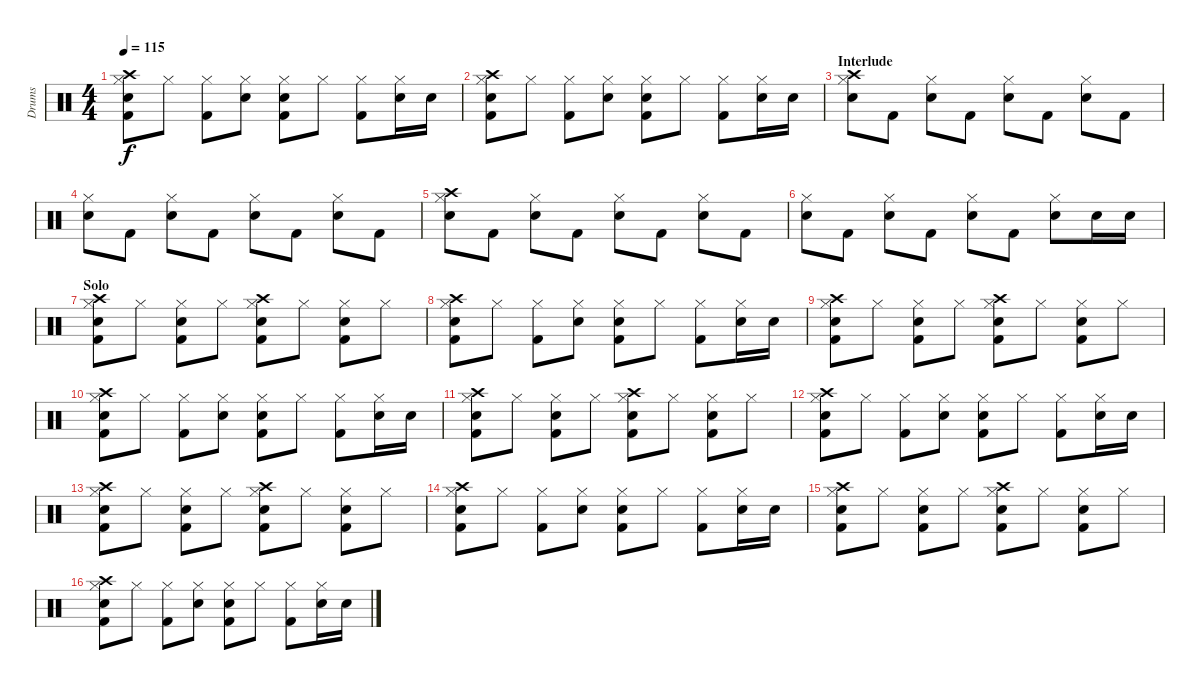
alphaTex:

\track ("Drums" "Drums") {instrument percussion}
\staff {score}
\articulation defaults
\ts (4 4)
\tempo 115
\clef neutral
\ks c
("Hi-Hat (closed)" "Kick (hit) 2" "Snare (hit) 2" "Crash high (hit)").8{dy f} "Hi-Hat (closed)".8 ("Hi-Hat (closed)" "Kick (hit) 2").8 ("Hi-Hat (closed)" "Snare (hit) 2").8 ("Hi-Hat (closed)" "Kick (hit) 2" "Snare (hit) 2").8 "Hi-Hat (closed)".8 ("Hi-Hat (closed)" "Kick (hit) 2").8 ("Hi-Hat (closed)" "Snare (hit) 2").16 "Snare (hit) 2".16 |
("Hi-Hat (closed)" "Kick (hit) 2" "Snare (hit) 2" "Crash high (hit)").8 "Hi-Hat (closed)".8 ("Hi-Hat (closed)" "Kick (hit) 2").8 ("Hi-Hat (closed)" "Snare (hit) 2").8 ("Hi-Hat (closed)" "Kick (hit) 2" "Snare (hit) 2").8 "Hi-Hat (closed)".8 ("Hi-Hat (closed)" "Kick (hit) 2").8 ("Hi-Hat (closed)" "Snare (hit) 2").16 "Snare (hit) 2".16 |
\section ("" "Interlude")
("Hi-Hat (closed)" "Crash high (hit)" "Snare (hit) 2").8 "Kick (hit) 2".8 ("Hi-Hat (closed)" "Snare (hit) 2").8 "Kick (hit) 2".8 ("Hi-Hat (closed)" "Snare (hit) 2").8 "Kick (hit) 2".8 ("Hi-Hat (closed)" "Snare (hit) 2").8 "Kick (hit) 2".8 |
("Hi-Hat (closed)" "Snare (hit) 2").8 "Kick (hit) 2".8 ("Hi-Hat (closed)" "Snare (hit) 2").8 "Kick (hit) 2".8 ("Hi-Hat (closed)" "Snare (hit) 2").8 "Kick (hit) 2".8 ("Hi-Hat (closed)" "Snare (hit) 2").8 "Kick (hit) 2".8 |
("Hi-Hat (closed)" "Crash high (hit)" "Snare (hit) 2").8 "Kick (hit) 2".8 ("Hi-Hat (closed)" "Snare (hit) 2").8 "Kick (hit) 2".8 ("Hi-Hat (closed)" "Snare (hit) 2").8 "Kick (hit) 2".8 ("Hi-Hat (closed)" "Snare (hit) 2").8 "Kick (hit) 2".8 |
("Hi-Hat (closed)" "Snare (hit) 2").8 "Kick (hit) 2".8 ("Hi-Hat (closed)" "Snare (hit) 2").8 "Kick (hit) 2".8 ("Hi-Hat (closed)" "Snare (hit) 2").8 "Kick (hit) 2".8 ("Hi-Hat (closed)" "Snare (hit) 2").8 "Snare (hit) 2".16 "Snare (hit) 2".16 |
\section ("" "Solo")
("Hi-Hat (closed)" "Kick (hit) 2" "Snare (hit) 2" "Crash high (hit)").8 "Hi-Hat (closed)".8 ("Hi-Hat (closed)" "Kick (hit) 2" "Snare (hit) 2").8 "Hi-Hat (closed)".8 ("Hi-Hat (closed)" "Kick (hit) 2" "Snare (hit) 2" "Crash high (hit)").8 "Hi-Hat (closed)".8 ("Hi-Hat (closed)" "Kick (hit) 2" "Snare (hit) 2").8 "Hi-Hat (closed)".8 |
("Hi-Hat (closed)" "Kick (hit) 2" "Snare (hit) 2" "Crash high (hit)").8 "Hi-Hat (closed)".8 ("Hi-Hat (closed)" "Kick (hit) 2").8 ("Hi-Hat (closed)" "Snare (hit) 2").8 ("Hi-Hat (closed)" "Kick (hit) 2" "Snare (hit) 2").8 "Hi-Hat (closed)".8 ("Hi-Hat (closed)" "Kick (hit) 2").8 ("Hi-Hat (closed)" "Snare (hit) 2").16 "Snare (hit) 2".16 |
("Hi-Hat (closed)" "Kick (hit) 2" "Snare (hit) 2" "Crash high (hit)").8 "Hi-Hat (closed)".8 ("Hi-Hat (closed)" "Kick (hit) 2" "Snare (hit) 2").8 "Hi-Hat (closed)".8 ("Hi-Hat (closed)" "Kick (hit) 2" "Snare (hit) 2" "Crash high (hit)").8 "Hi-Hat (closed)".8 ("Hi-Hat (closed)" "Kick (hit) 2" "Snare (hit) 2").8 "Hi-Hat (closed)".8 |
("Hi-Hat (closed)" "Kick (hit) 2" "Snare (hit) 2" "Crash high (hit)").8 "Hi-Hat (closed)".8 ("Hi-Hat (closed)" "Kick (hit) 2").8 ("Hi-Hat (closed)" "Snare (hit) 2").8 ("Hi-Hat (closed)" "Kick (hit) 2" "Snare (hit) 2").8 "Hi-Hat (closed)".8 ("Hi-Hat (closed)" "Kick (hit) 2").8 ("Hi-Hat (closed)" "Snare (hit) 2").16 "Snare (hit) 2".16 |
("Hi-Hat (closed)" "Kick (hit) 2" "Snare (hit) 2" "Crash high (hit)").8 "Hi-Hat (closed)".8 ("Hi-Hat (closed)" "Kick (hit) 2" "Snare (hit) 2").8 "Hi-Hat (closed)".8 ("Hi-Hat (closed)" "Kick (hit) 2" "Snare (hit) 2" "Crash high (hit)").8 "Hi-Hat (closed)".8 ("Hi-Hat (closed)" "Kick (hit) 2" "Snare (hit) 2").8 "Hi-Hat (closed)".8 |
("Hi-Hat (closed)" "Kick (hit) 2" "Snare (hit) 2" "Crash high (hit)").8 "Hi-Hat (closed)".8 ("Hi-Hat (closed)" "Kick (hit) 2").8 ("Hi-Hat (closed)" "Snare (hit) 2").8 ("Hi-Hat (closed)" "Kick (hit) 2" "Snare (hit) 2").8 "Hi-Hat (closed)".8 ("Hi-Hat (closed)" "Kick (hit) 2").8 ("Hi-Hat (closed)" "Snare (hit) 2").16 "Snare (hit) 2".16 |
("Hi-Hat (closed)" "Kick (hit) 2" "Snare (hit) 2" "Crash high (hit)").8 "Hi-Hat (closed)".8 ("Hi-Hat (closed)" "Kick (hit) 2" "Snare (hit) 2").8 "Hi-Hat (closed)".8 ("Hi-Hat (closed)" "Kick (hit) 2" "Snare (hit) 2" "Crash high (hit)").8 "Hi-Hat (closed)".8 ("Hi-Hat (closed)" "Kick (hit) 2" "Snare (hit) 2").8 "Hi-Hat (closed)".8 |
("Hi-Hat (closed)" "Kick (hit) 2" "Snare (hit) 2" "Crash high (hit)").8 "Hi-Hat (closed)".8 ("Hi-Hat (closed)" "Kick (hit) 2").8 ("Hi-Hat (closed)" "Snare (hit) 2").8 ("Hi-Hat (closed)" "Kick (hit) 2" "Snare (hit) 2").8 "Hi-Hat (closed)".8 ("Hi-Hat (closed)" "Kick (hit) 2").8 ("Hi-Hat (closed)" "Snare (hit) 2").16 "Snare (hit) 2".16 |
("Hi-Hat (closed)" "Kick (hit) 2" "Snare (hit) 2" "Crash high (hit)").8 "Hi-Hat (closed)".8 ("Hi-Hat (closed)" "Kick (hit) 2" "Snare (hit) 2").8 "Hi-Hat (closed)".8 ("Hi-Hat (closed)" "Kick (hit) 2" "Snare (hit) 2" "Crash high (hit)").8 "Hi-Hat (closed)".8 ("Hi-Hat (closed)" "Kick (hit) 2" "Snare (hit) 2").8 "Hi-Hat (closed)".8 |
("Hi-Hat (closed)" "Kick (hit) 2" "Snare (hit) 2" "Crash high (hit)").8 "Hi-Hat (closed)".8 ("Hi-Hat (closed)" "Kick (hit) 2").8 ("Hi-Hat (closed)" "Snare (hit) 2").8 ("Hi-Hat (closed)" "Kick (hit) 2" "Snare (hit) 2").8 "Hi-Hat (closed)".8 ("Hi-Hat (closed)" "Kick (hit) 2").8 ("Hi-Hat (closed)" "Snare (hit) 2").16 "Snare (hit) 2".16
